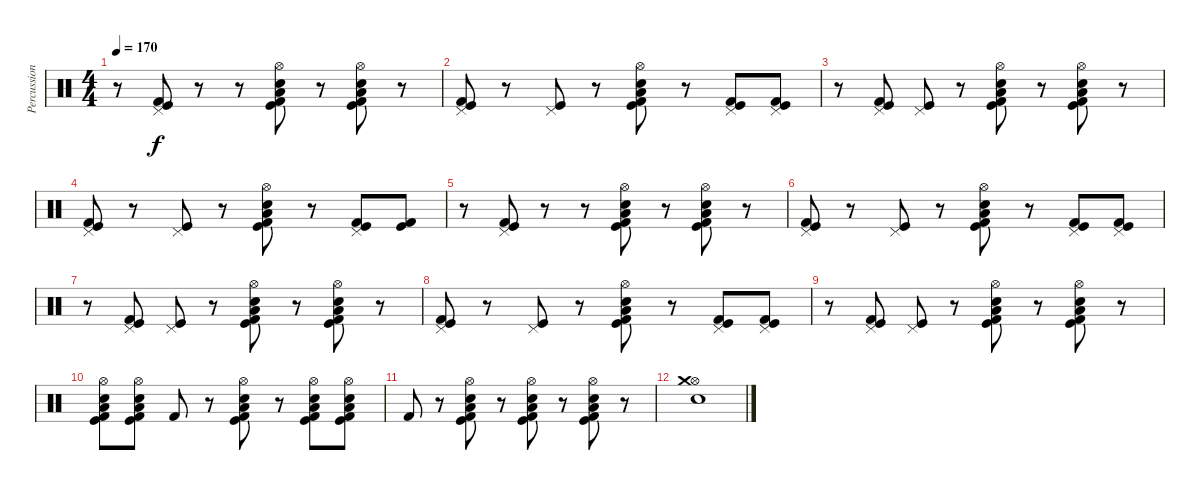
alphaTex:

\track ("Percussion" "Percussion") {instrument percussion}
\staff {score}
\articulation defaults
\ts (4 4)
\tempo 170
\clef neutral
\ks c
r.8{dy f} ("Kick (hit)" "Kick (hit) 2" "Pedal Hi-Hat (hit)").8 r.8 r.8 ("Kick (hit) 2" "Snare (hit) 2" "Kick (hit)" "Low Floor Tom (hit)" "Hi-Hat (open)").8 r.8 ("Kick (hit) 2" "Snare (hit) 2" "Kick (hit)" "Low Floor Tom (hit)" "Hi-Hat (open)").8 r.8 |
("Kick (hit)" "Kick (hit) 2" "Pedal Hi-Hat (hit)").8 r.8 ("Kick (hit)" "Pedal Hi-Hat (hit)").8 r.8 ("Kick (hit) 2" "Snare (hit) 2" "Kick (hit)" "Low Floor Tom (hit)" "Hi-Hat (open)").8 r.8 ("Kick (hit)" "Kick (hit) 2" "Pedal Hi-Hat (hit)").8 ("Kick (hit)" "Kick (hit) 2" "Pedal Hi-Hat (hit)").8 |
r.8 ("Kick (hit)" "Kick (hit) 2" "Pedal Hi-Hat (hit)").8 ("Kick (hit)" "Pedal Hi-Hat (hit)").8 r.8 ("Kick (hit) 2" "Snare (hit) 2" "Kick (hit)" "Low Floor Tom (hit)" "Hi-Hat (open)").8 r.8 ("Kick (hit) 2" "Snare (hit) 2" "Kick (hit)" "Low Floor Tom (hit)" "Hi-Hat (open)").8 r.8 |
("Kick (hit)" "Kick (hit) 2" "Pedal Hi-Hat (hit)").8 r.8 ("Kick (hit)" "Pedal Hi-Hat (hit)").8 r.8 ("Kick (hit) 2" "Snare (hit) 2" "Kick (hit)" "Low Floor Tom (hit)" "Hi-Hat (open)").8 r.8 ("Kick (hit)" "Kick (hit) 2" "Pedal Hi-Hat (hit)").8 ("Kick (hit)" "Kick (hit) 2").8 |
r.8 ("Kick (hit)" "Kick (hit) 2" "Pedal Hi-Hat (hit)").8 r.8 r.8 ("Kick (hit) 2" "Snare (hit) 2" "Kick (hit)" "Low Floor Tom (hit)" "Hi-Hat (open)").8 r.8 ("Kick (hit) 2" "Snare (hit) 2" "Kick (hit)" "Low Floor Tom (hit)" "Hi-Hat (open)").8 r.8 |
("Kick (hit)" "Kick (hit) 2" "Pedal Hi-Hat (hit)").8 r.8 ("Kick (hit)" "Pedal Hi-Hat (hit)").8 r.8 ("Kick (hit) 2" "Snare (hit) 2" "Kick (hit)" "Low Floor Tom (hit)" "Hi-Hat (open)").8 r.8 ("Kick (hit)" "Kick (hit) 2" "Pedal Hi-Hat (hit)").8 ("Kick (hit)" "Kick (hit) 2" "Pedal Hi-Hat (hit)").8 |
r.8 ("Kick (hit)" "Kick (hit) 2" "Pedal Hi-Hat (hit)").8 ("Kick (hit)" "Pedal Hi-Hat (hit)").8 r.8 ("Kick (hit) 2" "Snare (hit) 2" "Kick (hit)" "Low Floor Tom (hit)" "Hi-Hat (open)").8 r.8 ("Kick (hit) 2" "Snare (hit) 2" "Kick (hit)" "Low Floor Tom (hit)" "Hi-Hat (open)").8 r.8 |
("Kick (hit)" "Kick (hit) 2" "Pedal Hi-Hat (hit)").8 r.8 ("Kick (hit)" "Pedal Hi-Hat (hit)").8 r.8 ("Kick (hit) 2" "Snare (hit) 2" "Kick (hit)" "Low Floor Tom (hit)" "Hi-Hat (open)").8 r.8 ("Kick (hit)" "Kick (hit) 2" "Pedal Hi-Hat (hit)").8 ("Kick (hit)" "Kick (hit) 2" "Pedal Hi-Hat (hit)").8 |
r.8 ("Kick (hit)" "Kick (hit) 2" "Pedal Hi-Hat (hit)").8 ("Kick (hit)" "Pedal Hi-Hat (hit)").8 r.8 ("Kick (hit) 2" "Snare (hit) 2" "Kick (hit)" "Low Floor Tom (hit)" "Hi-Hat (open)").8 r.8 ("Kick (hit) 2" "Snare (hit) 2" "Kick (hit)" "Low Floor Tom (hit)" "Hi-Hat (open)").8 r.8 |
("Kick (hit) 2" "Snare (hit) 2" "Kick (hit)" "Low Floor Tom (hit)" "Hi-Hat (open)").8 ("Kick (hit) 2" "Snare (hit) 2" "Kick (hit)" "Low Floor Tom (hit)" "Hi-Hat (open)").8 "Kick (hit) 2".8 r.8 ("Kick (hit) 2" "Snare (hit) 2" "Kick (hit)" "Low Floor Tom (hit)" "Hi-Hat (open)").8 r.8 ("Kick (hit) 2" "Snare (hit) 2" "Kick (hit)" "Low Floor Tom (hit)" "Hi-Hat (open)").8 ("Kick (hit) 2" "Snare (hit) 2" "Kick (hit)" "Low Floor Tom (hit)" "Hi-Hat (open)").8 |
"Kick (hit) 2".8 r.8 ("Kick (hit) 2" "Snare (hit) 2" "Kick (hit)" "Low Floor Tom (hit)" "Hi-Hat (open)").8 r.8 ("Kick (hit) 2" "Snare (hit) 2" "Kick (hit)" "Low Floor Tom (hit)" "Hi-Hat (open)").8 r.8 ("Kick (hit) 2" "Snare (hit) 2" "Kick (hit)" "Low Floor Tom (hit)" "Hi-Hat (open)").8 r.8 |
("Snare (hit) 2" "Hi-Hat (open)" "Crash medium (hit)").1
